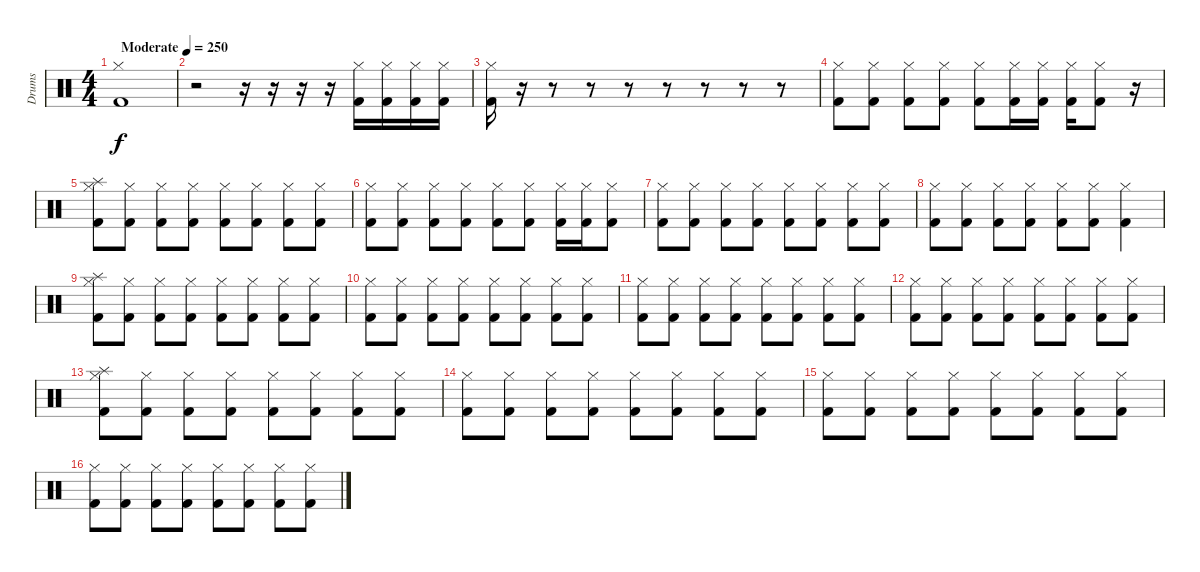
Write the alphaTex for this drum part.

\track ("Drums" "Drums") {instrument percussion}
\staff {score}
\articulation defaults
\ts (4 4)
\tempo (250 "Moderate")
\clef neutral
\ks c
("Kick (hit) 2" "Hi-Hat (closed)").1{dy f} |
r.2 r.16 r.16 r.16 r.16 ("Kick (hit) 2" "Hi-Hat (closed)").16 ("Kick (hit) 2" "Hi-Hat (closed)").16 ("Kick (hit) 2" "Hi-Hat (closed)").16 ("Kick (hit) 2" "Hi-Hat (closed)").16 |
("Kick (hit) 2" "Hi-Hat (closed)").16 r.16 r.8 r.8 r.8 r.8 r.8 r.8 r.8 |
("Kick (hit) 2" "Hi-Hat (closed)").8 ("Kick (hit) 2" "Hi-Hat (closed)").8 ("Kick (hit) 2" "Hi-Hat (closed)").8 ("Kick (hit) 2" "Hi-Hat (closed)").8 ("Kick (hit) 2" "Hi-Hat (closed)").8 ("Kick (hit) 2" "Hi-Hat (closed)").16 ("Kick (hit) 2" "Hi-Hat (closed)").16 ("Kick (hit) 2" "Hi-Hat (closed)").16 ("Kick (hit) 2" "Hi-Hat (closed)").8 r.16 |
("Splash (hit)" "Kick (hit) 2" "Hi-Hat (closed)").8 ("Kick (hit) 2" "Hi-Hat (closed)").8 ("Kick (hit) 2" "Hi-Hat (closed)").8 ("Kick (hit) 2" "Hi-Hat (closed)").8 ("Kick (hit) 2" "Hi-Hat (closed)").8 ("Kick (hit) 2" "Hi-Hat (closed)").8 ("Kick (hit) 2" "Hi-Hat (closed)").8 ("Kick (hit) 2" "Hi-Hat (closed)").8 |
("Kick (hit) 2" "Hi-Hat (closed)").8 ("Kick (hit) 2" "Hi-Hat (closed)").8 ("Kick (hit) 2" "Hi-Hat (closed)").8 ("Kick (hit) 2" "Hi-Hat (closed)").8 ("Kick (hit) 2" "Hi-Hat (closed)").8 ("Kick (hit) 2" "Hi-Hat (closed)").8 ("Kick (hit) 2" "Hi-Hat (closed)").16 ("Kick (hit) 2" "Hi-Hat (closed)").16 ("Kick (hit) 2" "Hi-Hat (closed)").8 |
("Kick (hit) 2" "Hi-Hat (closed)").8 ("Kick (hit) 2" "Hi-Hat (closed)").8 ("Kick (hit) 2" "Hi-Hat (closed)").8 ("Kick (hit) 2" "Hi-Hat (closed)").8 ("Kick (hit) 2" "Hi-Hat (closed)").8 ("Kick (hit) 2" "Hi-Hat (closed)").8 ("Kick (hit) 2" "Hi-Hat (closed)").8 ("Kick (hit) 2" "Hi-Hat (closed)").8 |
("Kick (hit) 2" "Hi-Hat (closed)").8 ("Kick (hit) 2" "Hi-Hat (closed)").8 ("Kick (hit) 2" "Hi-Hat (closed)").8 ("Kick (hit) 2" "Hi-Hat (closed)").8 ("Kick (hit) 2" "Hi-Hat (closed)").8 ("Kick (hit) 2" "Hi-Hat (closed)").8 ("Kick (hit) 2" "Hi-Hat (closed)").4 |
("Splash (hit)" "Kick (hit) 2" "Hi-Hat (closed)").8 ("Kick (hit) 2" "Hi-Hat (closed)").8 ("Kick (hit) 2" "Hi-Hat (closed)").8 ("Kick (hit) 2" "Hi-Hat (closed)").8 ("Kick (hit) 2" "Hi-Hat (closed)").8 ("Kick (hit) 2" "Hi-Hat (closed)").8 ("Kick (hit) 2" "Hi-Hat (closed)").8 ("Kick (hit) 2" "Hi-Hat (closed)").8 |
("Kick (hit) 2" "Hi-Hat (closed)").8 ("Kick (hit) 2" "Hi-Hat (closed)").8 ("Kick (hit) 2" "Hi-Hat (closed)").8 ("Kick (hit) 2" "Hi-Hat (closed)").8 ("Kick (hit) 2" "Hi-Hat (closed)").8 ("Kick (hit) 2" "Hi-Hat (closed)").8 ("Kick (hit) 2" "Hi-Hat (closed)").8 ("Kick (hit) 2" "Hi-Hat (closed)").8 |
("Kick (hit) 2" "Hi-Hat (closed)").8 ("Kick (hit) 2" "Hi-Hat (closed)").8 ("Kick (hit) 2" "Hi-Hat (closed)").8 ("Kick (hit) 2" "Hi-Hat (closed)").8 ("Kick (hit) 2" "Hi-Hat (closed)").8 ("Kick (hit) 2" "Hi-Hat (closed)").8 ("Kick (hit) 2" "Hi-Hat (closed)").8 ("Kick (hit) 2" "Hi-Hat (closed)").8 |
("Kick (hit) 2" "Hi-Hat (closed)").8 ("Kick (hit) 2" "Hi-Hat (closed)").8 ("Kick (hit) 2" "Hi-Hat (closed)").8 ("Kick (hit) 2" "Hi-Hat (closed)").8 ("Kick (hit) 2" "Hi-Hat (closed)").8 ("Kick (hit) 2" "Hi-Hat (closed)").8 ("Kick (hit) 2" "Hi-Hat (closed)").8 ("Kick (hit) 2" "Hi-Hat (closed)").8 |
("Splash (hit)" "Kick (hit) 2" "Hi-Hat (closed)").8 ("Kick (hit) 2" "Hi-Hat (closed)").8 ("Kick (hit) 2" "Hi-Hat (closed)").8 ("Kick (hit) 2" "Hi-Hat (closed)").8 ("Kick (hit) 2" "Hi-Hat (closed)").8 ("Kick (hit) 2" "Hi-Hat (closed)").8 ("Kick (hit) 2" "Hi-Hat (closed)").8 ("Kick (hit) 2" "Hi-Hat (closed)").8 |
("Kick (hit) 2" "Hi-Hat (closed)").8 ("Kick (hit) 2" "Hi-Hat (closed)").8 ("Kick (hit) 2" "Hi-Hat (closed)").8 ("Kick (hit) 2" "Hi-Hat (closed)").8 ("Kick (hit) 2" "Hi-Hat (closed)").8 ("Kick (hit) 2" "Hi-Hat (closed)").8 ("Kick (hit) 2" "Hi-Hat (closed)").8 ("Kick (hit) 2" "Hi-Hat (closed)").8 |
("Kick (hit) 2" "Hi-Hat (closed)").8 ("Kick (hit) 2" "Hi-Hat (closed)").8 ("Kick (hit) 2" "Hi-Hat (closed)").8 ("Kick (hit) 2" "Hi-Hat (closed)").8 ("Kick (hit) 2" "Hi-Hat (closed)").8 ("Kick (hit) 2" "Hi-Hat (closed)").8 ("Kick (hit) 2" "Hi-Hat (closed)").8 ("Kick (hit) 2" "Hi-Hat (closed)").8 |
("Kick (hit) 2" "Hi-Hat (closed)").8 ("Kick (hit) 2" "Hi-Hat (closed)").8 ("Kick (hit) 2" "Hi-Hat (closed)").8 ("Kick (hit) 2" "Hi-Hat (closed)").8 ("Kick (hit) 2" "Hi-Hat (closed)").8 ("Kick (hit) 2" "Hi-Hat (closed)").8 ("Kick (hit) 2" "Hi-Hat (closed)").8 ("Kick (hit) 2" "Hi-Hat (closed)").8
